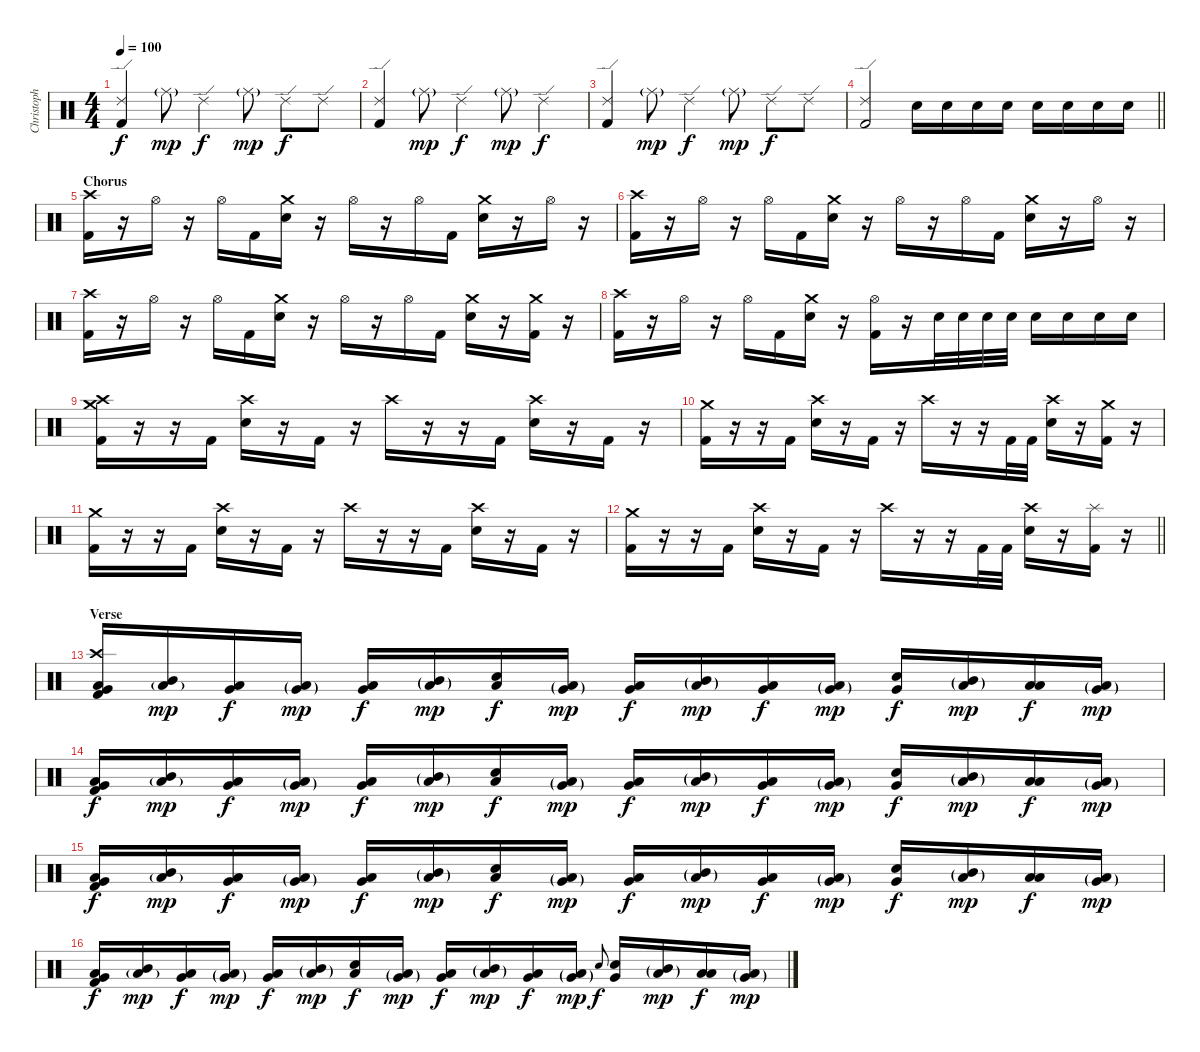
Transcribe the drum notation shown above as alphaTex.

\track ("Christoph Schneider" "Christoph ") {instrument percussion}
\staff {score}
\articulation defaults
\ts (4 4)
\tempo 100
\clef neutral
\ks c
("Ride (edge) 2" "Kick (hit) 2").4{dy f} "Ride (middle)"{g}.8{dy mp} "Ride (edge) 2".4{dy f} "Ride (middle)"{g}.8{dy mp} "Ride (edge) 2".8{dy f} "Ride (edge) 2".8 |
("Ride (edge) 2" "Kick (hit) 2").4 "Ride (middle)"{g}.8{dy mp} "Ride (edge) 2".4{dy f} "Ride (middle)"{g}.8{dy mp} "Ride (edge) 2".4{dy f} |
("Ride (edge) 2" "Kick (hit) 2").4 "Ride (middle)"{g}.8{dy mp} "Ride (edge) 2".4{dy f} "Ride (middle)"{g}.8{dy mp} "Ride (edge) 2".8{dy f} "Ride (edge) 2".8 |
\barLineRight lightlight
("Ride (edge) 2" "Kick (hit) 2").2 "Snare (hit) 2".16 "Snare (hit) 2".16 "Snare (hit) 2".16 "Snare (hit) 2".16 "Snare (hit) 2".16 "Snare (hit) 2".16 "Snare (hit) 2".16 "Snare (hit) 2".16 |
\section ("" "Chorus")
("Crash high (hit)" "Kick (hit) 2").16 r.16 "Hi-Hat (open)".16 r.16 "Hi-Hat (open)".16 "Kick (hit) 2".16 ("Crash medium (hit)" "Snare (hit) 2").16 r.16 "Hi-Hat (open)".16 r.16 "Hi-Hat (open)".16 "Kick (hit) 2".16 ("Crash medium (hit)" "Snare (hit) 2").16 r.16 "Hi-Hat (open)".16 r.16 |
("Crash high (hit)" "Kick (hit) 2").16 r.16 "Hi-Hat (open)".16 r.16 "Hi-Hat (open)".16 "Kick (hit) 2".16 ("Crash medium (hit)" "Snare (hit) 2").16 r.16 "Hi-Hat (open)".16 r.16 "Hi-Hat (open)".16 "Kick (hit) 2".16 ("Crash medium (hit)" "Snare (hit) 2").16 r.16 "Hi-Hat (open)".16 r.16 |
("Crash high (hit)" "Kick (hit) 2").16 r.16 "Hi-Hat (open)".16 r.16 "Hi-Hat (open)".16 "Kick (hit) 2".16 ("Crash medium (hit)" "Snare (hit) 2").16 r.16 "Hi-Hat (open)".16 r.16 "Hi-Hat (open)".16 "Kick (hit) 2".16 ("Crash medium (hit)" "Snare (hit) 2").16 r.16 ("Crash medium (hit)" "Kick (hit) 2").16 r.16 |
("Crash high (hit)" "Kick (hit) 2").16 r.16 "Hi-Hat (open)".16 r.16 "Hi-Hat (open)".16 "Kick (hit) 2".16 ("Crash medium (hit)" "Snare (hit) 2").16 r.16 ("Hi-Hat (open)" "Kick (hit) 2").16 r.16 "Snare (hit) 2".32 "Snare (hit) 2".32 "Snare (hit) 2".32 "Snare (hit) 2".32 "Snare (hit) 2".16 "Snare (hit) 2".16 "Snare (hit) 2".16 "Snare (hit) 2".16 |
("Crash high (hit)" "Crash medium (hit)" "Kick (hit) 2").16 r.16 r.16 "Kick (hit) 2".16 ("Crash high (hit)" "Snare (hit) 2").16 r.16 "Kick (hit) 2".16 r.16 "Crash high (hit)".16 r.16 r.16 "Kick (hit) 2".16 ("Crash high (hit)" "Snare (hit) 2").16 r.16 "Kick (hit) 2".16 r.16 |
("Crash medium (hit)" "Kick (hit) 2").16 r.16 r.16 "Kick (hit) 2".16 ("Crash high (hit)" "Snare (hit) 2").16 r.16 "Kick (hit) 2".16 r.16 "Crash high (hit)".16 r.16 r.16 "Kick (hit) 2".32 "Kick (hit) 2".32 ("Crash high (hit)" "Snare (hit) 2").16 r.16 ("Crash medium (hit)" "Kick (hit) 2").16 r.16 |
("Crash medium (hit)" "Kick (hit) 2").16 r.16 r.16 "Kick (hit) 2".16 ("Crash high (hit)" "Snare (hit) 2").16 r.16 "Kick (hit) 2".16 r.16 "Crash high (hit)".16 r.16 r.16 "Kick (hit) 2".16 ("Crash high (hit)" "Snare (hit) 2").16 r.16 "Kick (hit) 2".16 r.16 |
\barLineRight lightlight
("Crash medium (hit)" "Kick (hit) 2").16 r.16 r.16 "Kick (hit) 2".16 ("Crash high (hit)" "Snare (hit) 2").16 r.16 "Kick (hit) 2".16 r.16 "Crash high (hit)".16 r.16 r.16 "Kick (hit) 2".32 "Kick (hit) 2".32 ("Crash high (hit)" "Snare (hit) 2").16 r.16 ("Splash (hit)" "Kick (hit) 2").16 r.16 |
\section ("" "Verse")
("Crash high (hit)" "Very Low Tom (hit)" "Low Tom (hit)" "Kick (hit) 2").16 ("Low Tom (hit)"{g} "Mid Tom (hit)").16{dy mp} ("Low Floor Tom (hit)" "Very Low Tom (hit)").16{dy f} ("Very Low Tom (hit)"{g} "Low Tom (hit)"{g}).16{dy mp} ("Very Low Tom (hit)" "Low Floor Tom (hit)").16{dy f} ("Low Tom (hit)"{g} "Mid Tom (hit)"{g}).16{dy mp} ("Low Floor Tom (hit)" "Snare (hit) 2").16{dy f} ("Low Tom (hit)"{g} "Very Low Tom (hit)"{g}).16{dy mp} ("Very Low Tom (hit)" "Low Tom (hit)").16{dy f} ("Mid Tom (hit)"{g} "Low Tom (hit)"{g}).16{dy mp} ("Low Floor Tom (hit)" "Very Low Tom (hit)").16{dy f} ("Low Tom (hit)"{g} "Very Low Tom (hit)"{g}).16{dy mp} ("Very Low Tom (hit)" "Snare (hit) 2").16{dy f} ("Mid Tom (hit)"{g} "Low Tom (hit)"{g}).16{dy mp} ("Low Floor Tom (hit)" "Low Tom (hit)").16{dy f} ("Low Tom (hit)"{g} "Very Low Tom (hit)"{g}).16{dy mp} |
("Very Low Tom (hit)" "Low Tom (hit)" "Kick (hit) 2").16{dy f} ("Low Tom (hit)"{g} "Mid Tom (hit)").16{dy mp} ("Low Floor Tom (hit)" "Very Low Tom (hit)").16{dy f} ("Very Low Tom (hit)"{g} "Low Tom (hit)"{g}).16{dy mp} ("Very Low Tom (hit)" "Low Floor Tom (hit)").16{dy f} ("Low Tom (hit)"{g} "Mid Tom (hit)"{g}).16{dy mp} ("Low Floor Tom (hit)" "Snare (hit) 2").16{dy f} ("Low Tom (hit)"{g} "Very Low Tom (hit)"{g}).16{dy mp} ("Very Low Tom (hit)" "Low Tom (hit)").16{dy f} ("Mid Tom (hit)"{g} "Low Tom (hit)"{g}).16{dy mp} ("Low Floor Tom (hit)" "Very Low Tom (hit)").16{dy f} ("Low Tom (hit)"{g} "Very Low Tom (hit)"{g}).16{dy mp} ("Very Low Tom (hit)" "Snare (hit) 2").16{dy f} ("Mid Tom (hit)"{g} "Low Tom (hit)"{g}).16{dy mp} ("Low Floor Tom (hit)" "Low Tom (hit)").16{dy f} ("Low Tom (hit)"{g} "Very Low Tom (hit)"{g}).16{dy mp} |
("Very Low Tom (hit)" "Low Tom (hit)" "Kick (hit) 2").16{dy f} ("Low Tom (hit)"{g} "Mid Tom (hit)").16{dy mp} ("Low Floor Tom (hit)" "Very Low Tom (hit)").16{dy f} ("Very Low Tom (hit)"{g} "Low Tom (hit)"{g}).16{dy mp} ("Very Low Tom (hit)" "Low Floor Tom (hit)").16{dy f} ("Low Tom (hit)"{g} "Mid Tom (hit)"{g}).16{dy mp} ("Low Floor Tom (hit)" "Snare (hit) 2").16{dy f} ("Low Tom (hit)"{g} "Very Low Tom (hit)"{g}).16{dy mp} ("Very Low Tom (hit)" "Low Tom (hit)").16{dy f} ("Mid Tom (hit)"{g} "Low Tom (hit)"{g}).16{dy mp} ("Low Floor Tom (hit)" "Very Low Tom (hit)").16{dy f} ("Low Tom (hit)"{g} "Very Low Tom (hit)"{g}).16{dy mp} ("Very Low Tom (hit)" "Snare (hit) 2").16{dy f} ("Mid Tom (hit)"{g} "Low Tom (hit)"{g}).16{dy mp} ("Low Floor Tom (hit)" "Low Tom (hit)").16{dy f} ("Low Tom (hit)"{g} "Very Low Tom (hit)"{g}).16{dy mp} |
("Very Low Tom (hit)" "Low Tom (hit)" "Kick (hit) 2").16{dy f} ("Low Tom (hit)"{g} "Mid Tom (hit)").16{dy mp} ("Low Floor Tom (hit)" "Very Low Tom (hit)").16{dy f} ("Very Low Tom (hit)"{g} "Low Tom (hit)"{g}).16{dy mp} ("Very Low Tom (hit)" "Low Floor Tom (hit)").16{dy f} ("Low Tom (hit)"{g} "Mid Tom (hit)"{g}).16{dy mp} ("Low Floor Tom (hit)" "Snare (hit) 2").16{dy f} ("Low Tom (hit)"{g} "Very Low Tom (hit)"{g}).16{dy mp} ("Very Low Tom (hit)" "Low Tom (hit)").16{dy f} ("Mid Tom (hit)"{g} "Low Tom (hit)"{g}).16{dy mp} ("Low Floor Tom (hit)" "Very Low Tom (hit)").16{dy f} ("Low Tom (hit)"{g} "Very Low Tom (hit)"{g}).16{dy mp} "Snare (hit) 2".8{gr onbeat dy f} ("Very Low Tom (hit)" "Snare (hit) 2").16 ("Mid Tom (hit)"{g} "Low Tom (hit)"{g}).16{dy mp} ("Low Floor Tom (hit)" "Low Tom (hit)").16{dy f} ("Low Tom (hit)"{g} "Very Low Tom (hit)"{g}).16{dy mp}
